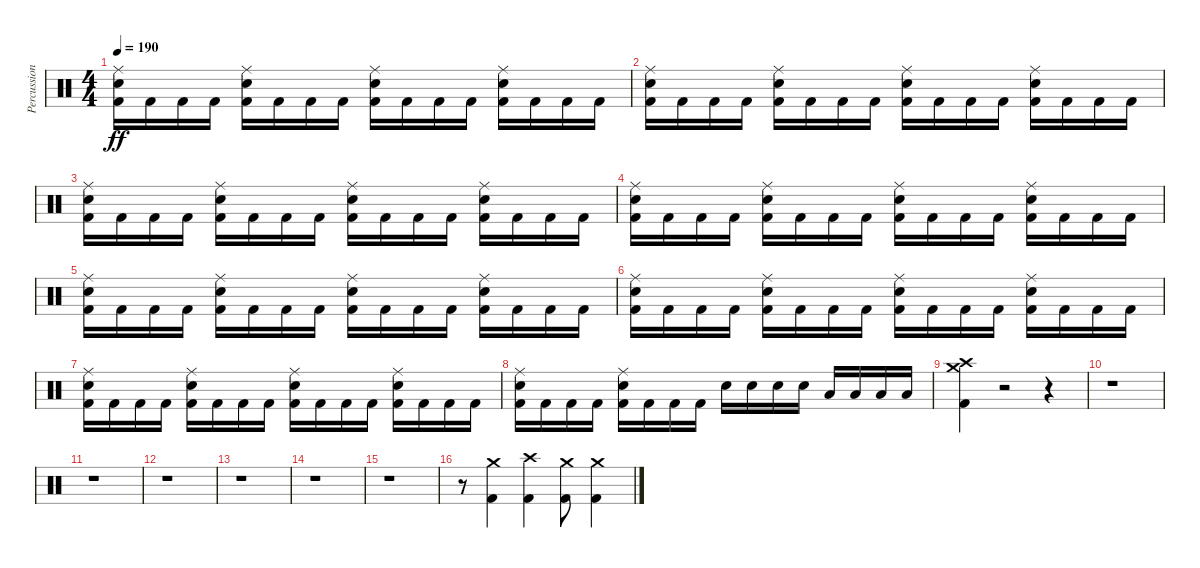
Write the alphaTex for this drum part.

\track ("Percussion" "Percussion") {instrument percussion}
\staff {score}
\articulation defaults
\ts (4 4)
\tempo 190
\clef neutral
\ks c
("Kick (hit) 2" "Electric Snare (hit)" "Ride (middle)").16{dy ff} "Kick (hit) 2".16 "Kick (hit) 2".16 "Kick (hit) 2".16 ("Kick (hit) 2" "Electric Snare (hit)" "Ride (middle)").16 "Kick (hit) 2".16 "Kick (hit) 2".16 "Kick (hit) 2".16 ("Kick (hit) 2" "Electric Snare (hit)" "Ride (middle)").16 "Kick (hit) 2".16 "Kick (hit) 2".16 "Kick (hit) 2".16 ("Kick (hit) 2" "Electric Snare (hit)" "Ride (middle)").16 "Kick (hit) 2".16 "Kick (hit) 2".16 "Kick (hit) 2".16 |
("Kick (hit) 2" "Electric Snare (hit)" "Ride (middle)").16 "Kick (hit) 2".16 "Kick (hit) 2".16 "Kick (hit) 2".16 ("Kick (hit) 2" "Electric Snare (hit)" "Ride (middle)").16 "Kick (hit) 2".16 "Kick (hit) 2".16 "Kick (hit) 2".16 ("Kick (hit) 2" "Electric Snare (hit)" "Ride (middle)").16 "Kick (hit) 2".16 "Kick (hit) 2".16 "Kick (hit) 2".16 ("Kick (hit) 2" "Electric Snare (hit)" "Ride (middle)").16 "Kick (hit) 2".16 "Kick (hit) 2".16 "Kick (hit) 2".16 |
("Kick (hit) 2" "Electric Snare (hit)" "Ride (middle)").16 "Kick (hit) 2".16 "Kick (hit) 2".16 "Kick (hit) 2".16 ("Kick (hit) 2" "Electric Snare (hit)" "Ride (middle)").16 "Kick (hit) 2".16 "Kick (hit) 2".16 "Kick (hit) 2".16 ("Kick (hit) 2" "Electric Snare (hit)" "Ride (middle)").16 "Kick (hit) 2".16 "Kick (hit) 2".16 "Kick (hit) 2".16 ("Kick (hit) 2" "Electric Snare (hit)" "Ride (middle)").16 "Kick (hit) 2".16 "Kick (hit) 2".16 "Kick (hit) 2".16 |
("Kick (hit) 2" "Electric Snare (hit)" "Ride (middle)").16 "Kick (hit) 2".16 "Kick (hit) 2".16 "Kick (hit) 2".16 ("Kick (hit) 2" "Electric Snare (hit)" "Ride (middle)").16 "Kick (hit) 2".16 "Kick (hit) 2".16 "Kick (hit) 2".16 ("Kick (hit) 2" "Electric Snare (hit)" "Ride (middle)").16 "Kick (hit) 2".16 "Kick (hit) 2".16 "Kick (hit) 2".16 ("Kick (hit) 2" "Electric Snare (hit)" "Ride (middle)").16 "Kick (hit) 2".16 "Kick (hit) 2".16 "Kick (hit) 2".16 |
("Kick (hit) 2" "Electric Snare (hit)" "Ride (middle)").16 "Kick (hit) 2".16 "Kick (hit) 2".16 "Kick (hit) 2".16 ("Kick (hit) 2" "Electric Snare (hit)" "Ride (middle)").16 "Kick (hit) 2".16 "Kick (hit) 2".16 "Kick (hit) 2".16 ("Kick (hit) 2" "Electric Snare (hit)" "Ride (middle)").16 "Kick (hit) 2".16 "Kick (hit) 2".16 "Kick (hit) 2".16 ("Kick (hit) 2" "Electric Snare (hit)" "Ride (middle)").16 "Kick (hit) 2".16 "Kick (hit) 2".16 "Kick (hit) 2".16 |
("Kick (hit) 2" "Electric Snare (hit)" "Ride (middle)").16 "Kick (hit) 2".16 "Kick (hit) 2".16 "Kick (hit) 2".16 ("Kick (hit) 2" "Electric Snare (hit)" "Ride (middle)").16 "Kick (hit) 2".16 "Kick (hit) 2".16 "Kick (hit) 2".16 ("Kick (hit) 2" "Electric Snare (hit)" "Ride (middle)").16 "Kick (hit) 2".16 "Kick (hit) 2".16 "Kick (hit) 2".16 ("Kick (hit) 2" "Electric Snare (hit)" "Ride (middle)").16 "Kick (hit) 2".16 "Kick (hit) 2".16 "Kick (hit) 2".16 |
("Kick (hit) 2" "Electric Snare (hit)" "Ride (middle)").16 "Kick (hit) 2".16 "Kick (hit) 2".16 "Kick (hit) 2".16 ("Kick (hit) 2" "Electric Snare (hit)" "Ride (middle)").16 "Kick (hit) 2".16 "Kick (hit) 2".16 "Kick (hit) 2".16 ("Kick (hit) 2" "Electric Snare (hit)" "Ride (middle)").16 "Kick (hit) 2".16 "Kick (hit) 2".16 "Kick (hit) 2".16 ("Kick (hit) 2" "Electric Snare (hit)" "Ride (middle)").16 "Kick (hit) 2".16 "Kick (hit) 2".16 "Kick (hit) 2".16 |
("Kick (hit) 2" "Electric Snare (hit)" "Ride (middle)").16 "Kick (hit) 2".16 "Kick (hit) 2".16 "Kick (hit) 2".16 ("Kick (hit) 2" "Electric Snare (hit)" "Ride (middle)").16 "Kick (hit) 2".16 "Kick (hit) 2".16 "Kick (hit) 2".16 "Electric Snare (hit)".16 "Electric Snare (hit)".16 "Electric Snare (hit)".16 "Electric Snare (hit)".16 "Low Tom (hit)".16 "Low Tom (hit)".16 "Low Tom (hit)".16 "Low Tom (hit)".16 |
("Kick (hit) 2" "Crash high (hit)" "Crash medium (hit)").4 r.2 r.4 |
r.1 |
r.1 |
r.1 |
r.1 |
r.1 |
r.1 |
r.8 ("Kick (hit) 2" "Crash medium (hit)").4 ("Kick (hit) 2" "Crash high (hit)").4 ("Kick (hit) 2" "Crash medium (hit)").8 ("Kick (hit) 2" "Crash medium (hit)").4
